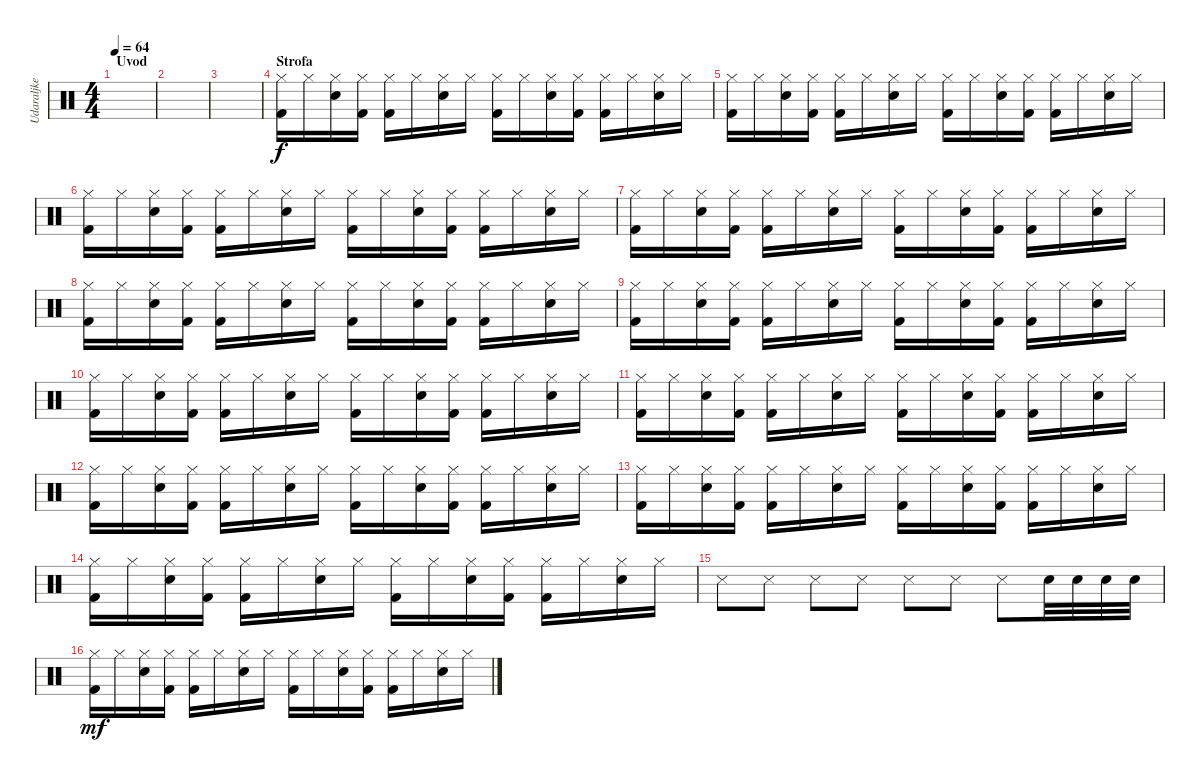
\track ("Udaraljke" "Udaraljke") {instrument percussion}
\staff {score}
\articulation defaults
\ts (4 4)
\section ("" "Uvod")
\tempo 64
\clef neutral
\ks c
|
|
|
\section ("" "Strofa")
("Kick (hit) 2" "Hi-Hat (closed)").16 "Hi-Hat (closed)".16 ("Snare (hit) 2" "Hi-Hat (closed)").16 ("Kick (hit) 2" "Hi-Hat (closed)").16 ("Kick (hit) 2" "Hi-Hat (closed)").16 "Hi-Hat (closed)".16 ("Snare (hit) 2" "Hi-Hat (closed)").16 "Hi-Hat (closed)".16 ("Kick (hit) 2" "Hi-Hat (closed)").16 "Hi-Hat (closed)".16 ("Snare (hit) 2" "Hi-Hat (closed)").16 ("Kick (hit) 2" "Hi-Hat (closed)").16 ("Kick (hit) 2" "Hi-Hat (closed)").16 "Hi-Hat (closed)".16 ("Snare (hit) 2" "Hi-Hat (closed)").16 "Hi-Hat (closed)".16 |
("Kick (hit) 2" "Hi-Hat (closed)").16 "Hi-Hat (closed)".16 ("Snare (hit) 2" "Hi-Hat (closed)").16 ("Kick (hit) 2" "Hi-Hat (closed)").16 ("Kick (hit) 2" "Hi-Hat (closed)").16 "Hi-Hat (closed)".16 ("Snare (hit) 2" "Hi-Hat (closed)").16 "Hi-Hat (closed)".16 ("Kick (hit) 2" "Hi-Hat (closed)").16 "Hi-Hat (closed)".16 ("Snare (hit) 2" "Hi-Hat (closed)").16 ("Kick (hit) 2" "Hi-Hat (closed)").16 ("Kick (hit) 2" "Hi-Hat (closed)").16 "Hi-Hat (closed)".16 ("Snare (hit) 2" "Hi-Hat (closed)").16 "Hi-Hat (closed)".16 |
("Kick (hit) 2" "Hi-Hat (closed)").16 "Hi-Hat (closed)".16 ("Snare (hit) 2" "Hi-Hat (closed)").16 ("Kick (hit) 2" "Hi-Hat (closed)").16 ("Kick (hit) 2" "Hi-Hat (closed)").16 "Hi-Hat (closed)".16 ("Snare (hit) 2" "Hi-Hat (closed)").16 "Hi-Hat (closed)".16 ("Kick (hit) 2" "Hi-Hat (closed)").16 "Hi-Hat (closed)".16 ("Snare (hit) 2" "Hi-Hat (closed)").16 ("Kick (hit) 2" "Hi-Hat (closed)").16 ("Kick (hit) 2" "Hi-Hat (closed)").16 "Hi-Hat (closed)".16 ("Snare (hit) 2" "Hi-Hat (closed)").16 "Hi-Hat (closed)".16 |
("Kick (hit) 2" "Hi-Hat (closed)").16 "Hi-Hat (closed)".16 ("Snare (hit) 2" "Hi-Hat (closed)").16 ("Kick (hit) 2" "Hi-Hat (closed)").16 ("Kick (hit) 2" "Hi-Hat (closed)").16 "Hi-Hat (closed)".16 ("Snare (hit) 2" "Hi-Hat (closed)").16 "Hi-Hat (closed)".16 ("Kick (hit) 2" "Hi-Hat (closed)").16 "Hi-Hat (closed)".16 ("Snare (hit) 2" "Hi-Hat (closed)").16 ("Kick (hit) 2" "Hi-Hat (closed)").16 ("Kick (hit) 2" "Hi-Hat (closed)").16 "Hi-Hat (closed)".16 ("Snare (hit) 2" "Hi-Hat (closed)").16 "Hi-Hat (closed)".16 |
("Kick (hit) 2" "Hi-Hat (closed)").16 "Hi-Hat (closed)".16 ("Snare (hit) 2" "Hi-Hat (closed)").16 ("Kick (hit) 2" "Hi-Hat (closed)").16 ("Kick (hit) 2" "Hi-Hat (closed)").16 "Hi-Hat (closed)".16 ("Snare (hit) 2" "Hi-Hat (closed)").16 "Hi-Hat (closed)".16 ("Kick (hit) 2" "Hi-Hat (closed)").16 "Hi-Hat (closed)".16 ("Snare (hit) 2" "Hi-Hat (closed)").16 ("Kick (hit) 2" "Hi-Hat (closed)").16 ("Kick (hit) 2" "Hi-Hat (closed)").16 "Hi-Hat (closed)".16 ("Snare (hit) 2" "Hi-Hat (closed)").16 "Hi-Hat (closed)".16 |
("Kick (hit) 2" "Hi-Hat (closed)").16 "Hi-Hat (closed)".16 ("Snare (hit) 2" "Hi-Hat (closed)").16 ("Kick (hit) 2" "Hi-Hat (closed)").16 ("Kick (hit) 2" "Hi-Hat (closed)").16 "Hi-Hat (closed)".16 ("Snare (hit) 2" "Hi-Hat (closed)").16 "Hi-Hat (closed)".16 ("Kick (hit) 2" "Hi-Hat (closed)").16 "Hi-Hat (closed)".16 ("Snare (hit) 2" "Hi-Hat (closed)").16 ("Kick (hit) 2" "Hi-Hat (closed)").16 ("Kick (hit) 2" "Hi-Hat (closed)").16 "Hi-Hat (closed)".16 ("Snare (hit) 2" "Hi-Hat (closed)").16 "Hi-Hat (closed)".16 |
("Kick (hit) 2" "Hi-Hat (closed)").16 "Hi-Hat (closed)".16 ("Snare (hit) 2" "Hi-Hat (closed)").16 ("Kick (hit) 2" "Hi-Hat (closed)").16 ("Kick (hit) 2" "Hi-Hat (closed)").16 "Hi-Hat (closed)".16 ("Snare (hit) 2" "Hi-Hat (closed)").16 "Hi-Hat (closed)".16 ("Kick (hit) 2" "Hi-Hat (closed)").16 "Hi-Hat (closed)".16 ("Snare (hit) 2" "Hi-Hat (closed)").16 ("Kick (hit) 2" "Hi-Hat (closed)").16 ("Kick (hit) 2" "Hi-Hat (closed)").16 "Hi-Hat (closed)".16 ("Snare (hit) 2" "Hi-Hat (closed)").16 "Hi-Hat (closed)".16 |
("Kick (hit) 2" "Hi-Hat (closed)").16 "Hi-Hat (closed)".16 ("Snare (hit) 2" "Hi-Hat (closed)").16 ("Kick (hit) 2" "Hi-Hat (closed)").16 ("Kick (hit) 2" "Hi-Hat (closed)").16 "Hi-Hat (closed)".16 ("Snare (hit) 2" "Hi-Hat (closed)").16 "Hi-Hat (closed)".16 ("Kick (hit) 2" "Hi-Hat (closed)").16 "Hi-Hat (closed)".16 ("Snare (hit) 2" "Hi-Hat (closed)").16 ("Kick (hit) 2" "Hi-Hat (closed)").16 ("Kick (hit) 2" "Hi-Hat (closed)").16 "Hi-Hat (closed)".16 ("Snare (hit) 2" "Hi-Hat (closed)").16 "Hi-Hat (closed)".16 |
("Kick (hit) 2" "Hi-Hat (closed)").16 "Hi-Hat (closed)".16 ("Snare (hit) 2" "Hi-Hat (closed)").16 ("Kick (hit) 2" "Hi-Hat (closed)").16 ("Kick (hit) 2" "Hi-Hat (closed)").16 "Hi-Hat (closed)".16 ("Snare (hit) 2" "Hi-Hat (closed)").16 "Hi-Hat (closed)".16 ("Kick (hit) 2" "Hi-Hat (closed)").16 "Hi-Hat (closed)".16 ("Snare (hit) 2" "Hi-Hat (closed)").16 ("Kick (hit) 2" "Hi-Hat (closed)").16 ("Kick (hit) 2" "Hi-Hat (closed)").16 "Hi-Hat (closed)".16 ("Snare (hit) 2" "Hi-Hat (closed)").16 "Hi-Hat (closed)".16 |
("Kick (hit) 2" "Hi-Hat (closed)").16 "Hi-Hat (closed)".16 ("Snare (hit) 2" "Hi-Hat (closed)").16 ("Kick (hit) 2" "Hi-Hat (closed)").16 ("Kick (hit) 2" "Hi-Hat (closed)").16 "Hi-Hat (closed)".16 ("Snare (hit) 2" "Hi-Hat (closed)").16 "Hi-Hat (closed)".16 ("Kick (hit) 2" "Hi-Hat (closed)").16 "Hi-Hat (closed)".16 ("Snare (hit) 2" "Hi-Hat (closed)").16 ("Kick (hit) 2" "Hi-Hat (closed)").16 ("Kick (hit) 2" "Hi-Hat (closed)").16 "Hi-Hat (closed)".16 ("Snare (hit) 2" "Hi-Hat (closed)").16 "Hi-Hat (closed)".16 |
("Kick (hit) 2" "Hi-Hat (closed)").16 "Hi-Hat (closed)".16 ("Snare (hit) 2" "Hi-Hat (closed)").16 ("Kick (hit) 2" "Hi-Hat (closed)").16 ("Kick (hit) 2" "Hi-Hat (closed)").16 "Hi-Hat (closed)".16 ("Snare (hit) 2" "Hi-Hat (closed)").16 "Hi-Hat (closed)".16 ("Kick (hit) 2" "Hi-Hat (closed)").16 "Hi-Hat (closed)".16 ("Snare (hit) 2" "Hi-Hat (closed)").16 ("Kick (hit) 2" "Hi-Hat (closed)").16 ("Kick (hit) 2" "Hi-Hat (closed)").16 "Hi-Hat (closed)".16 ("Snare (hit) 2" "Hi-Hat (closed)").16 "Hi-Hat (closed)".16 |
"Snare (side stick) 3".8{dy f} "Snare (side stick) 3".8 "Snare (side stick) 3".8 "Snare (side stick) 3".8 "Snare (side stick) 3".8 "Snare (side stick) 3".8 "Snare (side stick) 3".8 "Snare (hit) 2".32 "Snare (hit) 2".32 "Snare (hit) 2".32 "Snare (hit) 2".32 |
("Kick (hit) 2" "Hi-Hat (closed)").16{dy mf} "Hi-Hat (closed)".16 ("Snare (hit) 2" "Hi-Hat (closed)").16 ("Kick (hit) 2" "Hi-Hat (closed)").16 ("Kick (hit) 2" "Hi-Hat (closed)").16 "Hi-Hat (closed)".16 ("Snare (hit) 2" "Hi-Hat (closed)").16 "Hi-Hat (closed)".16 ("Kick (hit) 2" "Hi-Hat (closed)").16 "Hi-Hat (closed)".16 ("Snare (hit) 2" "Hi-Hat (closed)").16 ("Kick (hit) 2" "Hi-Hat (closed)").16 ("Kick (hit) 2" "Hi-Hat (closed)").16 "Hi-Hat (closed)".16 ("Snare (hit) 2" "Hi-Hat (closed)").16 "Hi-Hat (closed)".16
